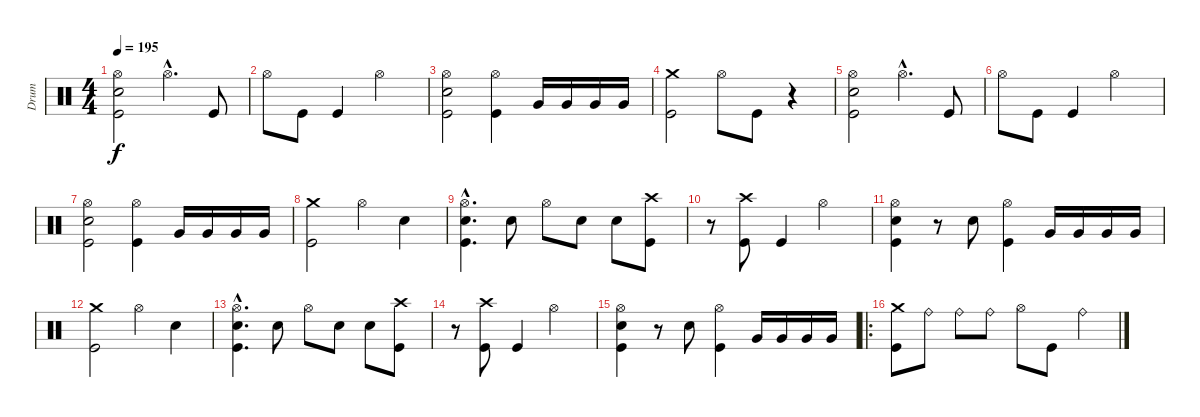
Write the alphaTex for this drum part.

\track ("Drum" "Drum") {instrument percussion}
\staff {score}
\articulation defaults
\ts (4 4)
\tempo 195
\clef neutral
\ks c
("Hi-Hat (open)" "Snare (hit) 2" "Kick (hit)").2{dy f} "Hi-Hat (open)"{hac}.4{d} "Kick (hit)".8 |
"Hi-Hat (open)".8 "Kick (hit)".8 "Kick (hit)".4 "Hi-Hat (open)".2 |
("Hi-Hat (open)" "Snare (hit) 2" "Kick (hit)").2 ("Hi-Hat (open)" "Kick (hit)").4 "Very Low Tom (hit)".16 "Very Low Tom (hit)".16 "Very Low Tom (hit)".16 "Very Low Tom (hit)".16 |
("Crash medium (hit)" "Kick (hit)").2 "Hi-Hat (open)".8 "Kick (hit)".8 r.4 |
("Hi-Hat (open)" "Snare (hit) 2" "Kick (hit)").2 "Hi-Hat (open)"{hac}.4{d} "Kick (hit)".8 |
"Hi-Hat (open)".8 "Kick (hit)".8 "Kick (hit)".4 "Hi-Hat (open)".2 |
("Hi-Hat (open)" "Snare (hit) 2" "Kick (hit)").2 ("Hi-Hat (open)" "Kick (hit)").4 "Very Low Tom (hit)".16 "Very Low Tom (hit)".16 "Very Low Tom (hit)".16 "Very Low Tom (hit)".16 |
("Crash medium (hit)" "Kick (hit)").2 "Hi-Hat (open)".4 "Snare (hit) 2".4 |
("Hi-Hat (open)"{hac} "Snare (hit) 2"{hac} "Kick (hit)"{hac}).4{d} "Snare (hit) 2".8 "Hi-Hat (open)".8 "Snare (hit) 2".8 "Snare (hit) 2".8 ("Crash high (hit)" "Kick (hit)").8 |
r.8 ("Crash high (hit)" "Kick (hit)").8 "Kick (hit)".4 "Hi-Hat (open)".2 |
("Hi-Hat (open)" "Snare (hit) 2" "Kick (hit)").4 r.8 "Snare (hit) 2".8 ("Hi-Hat (open)" "Kick (hit)").4 "Very Low Tom (hit)".16 "Very Low Tom (hit)".16 "Very Low Tom (hit)".16 "Very Low Tom (hit)".16 |
("Crash medium (hit)" "Kick (hit)").2 "Hi-Hat (open)".4 "Snare (hit) 2".4 |
("Hi-Hat (open)"{hac} "Snare (hit) 2"{hac} "Kick (hit)"{hac}).4{d} "Snare (hit) 2".8 "Hi-Hat (open)".8 "Snare (hit) 2".8 "Snare (hit) 2".8 ("Crash high (hit)" "Kick (hit)").8 |
r.8 ("Crash high (hit)" "Kick (hit)").8 "Kick (hit)".4 "Hi-Hat (open)".2 |
("Hi-Hat (open)" "Snare (hit) 2" "Kick (hit)").4 r.8 "Snare (hit) 2".8 ("Hi-Hat (open)" "Kick (hit)").4 "Very Low Tom (hit)".16 "Very Low Tom (hit)".16 "Very Low Tom (hit)".16 "Very Low Tom (hit)".16 |
\ro
("Crash medium (hit)" "Kick (hit)").8 "Ride (bell)".8 "Ride (bell)".8 "Ride (bell)".8 "Hi-Hat (open)".8 "Kick (hit)".8 "Ride (bell)".4
